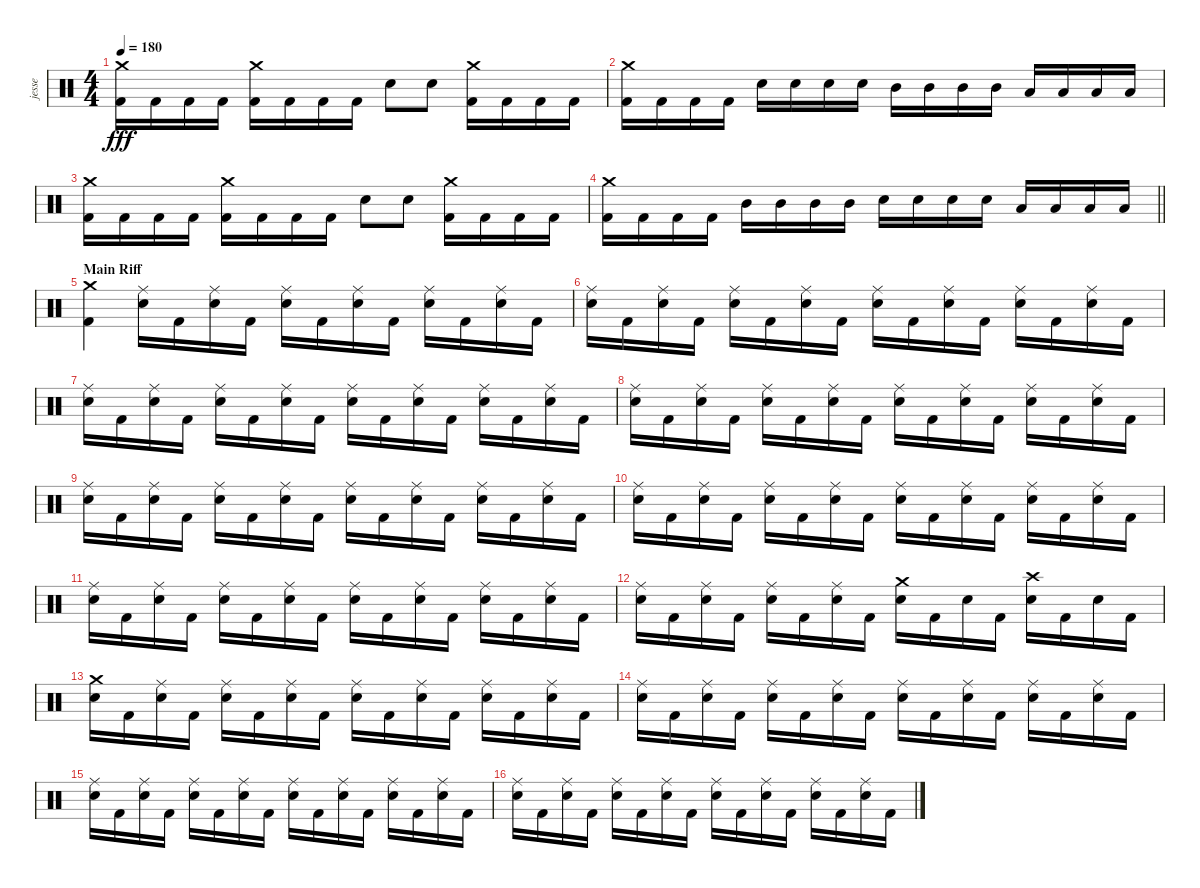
\track ("jesse" "jesse") {instrument percussion}
\staff {score}
\articulation defaults
\ts (4 4)
\tempo 180
\clef neutral
\ks c
("Crash medium (hit)" "Kick (hit) 2").16{dy fff} "Kick (hit) 2".16 "Kick (hit) 2".16 "Kick (hit) 2".16 ("Crash medium (hit)" "Kick (hit) 2").16 "Kick (hit) 2".16 "Kick (hit) 2".16 "Kick (hit) 2".16 "Snare (hit) 2".8 "Snare (hit) 2".8 ("Crash medium (hit)" "Kick (hit) 2").16 "Kick (hit) 2".16 "Kick (hit) 2".16 "Kick (hit) 2".16 |
("Crash medium (hit)" "Kick (hit) 2").16 "Kick (hit) 2".16 "Kick (hit) 2".16 "Kick (hit) 2".16 "Snare (hit) 2".16 "Snare (hit) 2".16 "Snare (hit) 2".16 "Snare (hit) 2".16 "Mid Tom (hit)".16 "Mid Tom (hit)".16 "Mid Tom (hit)".16 "Mid Tom (hit)".16 "Low Tom (hit)".16 "Low Tom (hit)".16 "Low Tom (hit)".16 "Low Tom (hit)".16 |
("Crash medium (hit)" "Kick (hit) 2").16 "Kick (hit) 2".16 "Kick (hit) 2".16 "Kick (hit) 2".16 ("Crash medium (hit)" "Kick (hit) 2").16 "Kick (hit) 2".16 "Kick (hit) 2".16 "Kick (hit) 2".16 "Snare (hit) 2".8 "Snare (hit) 2".8 ("Crash medium (hit)" "Kick (hit) 2").16 "Kick (hit) 2".16 "Kick (hit) 2".16 "Kick (hit) 2".16 |
\barLineRight lightlight
("Crash medium (hit)" "Kick (hit) 2").16 "Kick (hit) 2".16 "Kick (hit) 2".16 "Kick (hit) 2".16 "Mid Tom (hit)".16 "Mid Tom (hit)".16 "Mid Tom (hit)".16 "Mid Tom (hit)".16 "Snare (hit) 2".16 "Snare (hit) 2".16 "Snare (hit) 2".16 "Snare (hit) 2".16 "Low Tom (hit)".16 "Low Tom (hit)".16 "Low Tom (hit)".16 "Low Tom (hit)".16 |
\section ("" "Main Riff")
("Crash medium (hit)" "Kick (hit) 2").4 ("Ride (middle)" "Snare (hit) 2").16 "Kick (hit) 2".16 ("Ride (middle)" "Snare (hit) 2").16 "Kick (hit) 2".16 ("Ride (middle)" "Snare (hit) 2").16 "Kick (hit) 2".16 ("Ride (middle)" "Snare (hit) 2").16 "Kick (hit) 2".16 ("Ride (middle)" "Snare (hit) 2").16 "Kick (hit) 2".16 ("Ride (middle)" "Snare (hit) 2").16 "Kick (hit) 2".16 |
("Ride (middle)" "Snare (hit) 2").16 "Kick (hit) 2".16 ("Ride (middle)" "Snare (hit) 2").16 "Kick (hit) 2".16 ("Ride (middle)" "Snare (hit) 2").16 "Kick (hit) 2".16 ("Ride (middle)" "Snare (hit) 2").16 "Kick (hit) 2".16 ("Ride (middle)" "Snare (hit) 2").16 "Kick (hit) 2".16 ("Ride (middle)" "Snare (hit) 2").16 "Kick (hit) 2".16 ("Ride (middle)" "Snare (hit) 2").16 "Kick (hit) 2".16 ("Ride (middle)" "Snare (hit) 2").16 "Kick (hit) 2".16 |
("Ride (middle)" "Snare (hit) 2").16 "Kick (hit) 2".16 ("Ride (middle)" "Snare (hit) 2").16 "Kick (hit) 2".16 ("Ride (middle)" "Snare (hit) 2").16 "Kick (hit) 2".16 ("Ride (middle)" "Snare (hit) 2").16 "Kick (hit) 2".16 ("Ride (middle)" "Snare (hit) 2").16 "Kick (hit) 2".16 ("Ride (middle)" "Snare (hit) 2").16 "Kick (hit) 2".16 ("Ride (middle)" "Snare (hit) 2").16 "Kick (hit) 2".16 ("Ride (middle)" "Snare (hit) 2").16 "Kick (hit) 2".16 |
("Ride (middle)" "Snare (hit) 2").16 "Kick (hit) 2".16 ("Ride (middle)" "Snare (hit) 2").16 "Kick (hit) 2".16 ("Ride (middle)" "Snare (hit) 2").16 "Kick (hit) 2".16 ("Ride (middle)" "Snare (hit) 2").16 "Kick (hit) 2".16 ("Ride (middle)" "Snare (hit) 2").16 "Kick (hit) 2".16 ("Ride (middle)" "Snare (hit) 2").16 "Kick (hit) 2".16 ("Ride (middle)" "Snare (hit) 2").16 "Kick (hit) 2".16 ("Ride (middle)" "Snare (hit) 2").16 "Kick (hit) 2".16 |
("Ride (middle)" "Snare (hit) 2").16 "Kick (hit) 2".16 ("Ride (middle)" "Snare (hit) 2").16 "Kick (hit) 2".16 ("Ride (middle)" "Snare (hit) 2").16 "Kick (hit) 2".16 ("Ride (middle)" "Snare (hit) 2").16 "Kick (hit) 2".16 ("Ride (middle)" "Snare (hit) 2").16 "Kick (hit) 2".16 ("Ride (middle)" "Snare (hit) 2").16 "Kick (hit) 2".16 ("Ride (middle)" "Snare (hit) 2").16 "Kick (hit) 2".16 ("Ride (middle)" "Snare (hit) 2").16 "Kick (hit) 2".16 |
("Ride (middle)" "Snare (hit) 2").16 "Kick (hit) 2".16 ("Ride (middle)" "Snare (hit) 2").16 "Kick (hit) 2".16 ("Ride (middle)" "Snare (hit) 2").16 "Kick (hit) 2".16 ("Ride (middle)" "Snare (hit) 2").16 "Kick (hit) 2".16 ("Ride (middle)" "Snare (hit) 2").16 "Kick (hit) 2".16 ("Ride (middle)" "Snare (hit) 2").16 "Kick (hit) 2".16 ("Ride (middle)" "Snare (hit) 2").16 "Kick (hit) 2".16 ("Ride (middle)" "Snare (hit) 2").16 "Kick (hit) 2".16 |
("Ride (middle)" "Snare (hit) 2").16 "Kick (hit) 2".16 ("Ride (middle)" "Snare (hit) 2").16 "Kick (hit) 2".16 ("Ride (middle)" "Snare (hit) 2").16 "Kick (hit) 2".16 ("Ride (middle)" "Snare (hit) 2").16 "Kick (hit) 2".16 ("Ride (middle)" "Snare (hit) 2").16 "Kick (hit) 2".16 ("Ride (middle)" "Snare (hit) 2").16 "Kick (hit) 2".16 ("Ride (middle)" "Snare (hit) 2").16 "Kick (hit) 2".16 ("Ride (middle)" "Snare (hit) 2").16 "Kick (hit) 2".16 |
("Ride (middle)" "Snare (hit) 2").16 "Kick (hit) 2".16 ("Ride (middle)" "Snare (hit) 2").16 "Kick (hit) 2".16 ("Ride (middle)" "Snare (hit) 2").16 "Kick (hit) 2".16 ("Ride (middle)" "Snare (hit) 2").16 "Kick (hit) 2".16 ("Crash medium (hit)" "Snare (hit) 2").16 "Kick (hit) 2".16 "Snare (hit) 2".16 "Kick (hit) 2".16 ("Crash high (hit)" "Snare (hit) 2").16 "Kick (hit) 2".16 "Snare (hit) 2".16 "Kick (hit) 2".16 |
("Crash medium (hit)" "Snare (hit) 2").16 "Kick (hit) 2".16 ("Ride (middle)" "Snare (hit) 2").16 "Kick (hit) 2".16 ("Ride (middle)" "Snare (hit) 2").16 "Kick (hit) 2".16 ("Ride (middle)" "Snare (hit) 2").16 "Kick (hit) 2".16 ("Ride (middle)" "Snare (hit) 2").16 "Kick (hit) 2".16 ("Ride (middle)" "Snare (hit) 2").16 "Kick (hit) 2".16 ("Ride (middle)" "Snare (hit) 2").16 "Kick (hit) 2".16 ("Ride (middle)" "Snare (hit) 2").16 "Kick (hit) 2".16 |
("Ride (middle)" "Snare (hit) 2").16 "Kick (hit) 2".16 ("Ride (middle)" "Snare (hit) 2").16 "Kick (hit) 2".16 ("Ride (middle)" "Snare (hit) 2").16 "Kick (hit) 2".16 ("Ride (middle)" "Snare (hit) 2").16 "Kick (hit) 2".16 ("Ride (middle)" "Snare (hit) 2").16 "Kick (hit) 2".16 ("Ride (middle)" "Snare (hit) 2").16 "Kick (hit) 2".16 ("Ride (middle)" "Snare (hit) 2").16 "Kick (hit) 2".16 ("Ride (middle)" "Snare (hit) 2").16 "Kick (hit) 2".16 |
("Ride (middle)" "Snare (hit) 2").16 "Kick (hit) 2".16 ("Ride (middle)" "Snare (hit) 2").16 "Kick (hit) 2".16 ("Ride (middle)" "Snare (hit) 2").16 "Kick (hit) 2".16 ("Ride (middle)" "Snare (hit) 2").16 "Kick (hit) 2".16 ("Ride (middle)" "Snare (hit) 2").16 "Kick (hit) 2".16 ("Ride (middle)" "Snare (hit) 2").16 "Kick (hit) 2".16 ("Ride (middle)" "Snare (hit) 2").16 "Kick (hit) 2".16 ("Ride (middle)" "Snare (hit) 2").16 "Kick (hit) 2".16 |
("Ride (middle)" "Snare (hit) 2").16 "Kick (hit) 2".16 ("Ride (middle)" "Snare (hit) 2").16 "Kick (hit) 2".16 ("Ride (middle)" "Snare (hit) 2").16 "Kick (hit) 2".16 ("Ride (middle)" "Snare (hit) 2").16 "Kick (hit) 2".16 ("Ride (middle)" "Snare (hit) 2").16 "Kick (hit) 2".16 ("Ride (middle)" "Snare (hit) 2").16 "Kick (hit) 2".16 ("Ride (middle)" "Snare (hit) 2").16 "Kick (hit) 2".16 ("Ride (middle)" "Snare (hit) 2").16 "Kick (hit) 2".16
